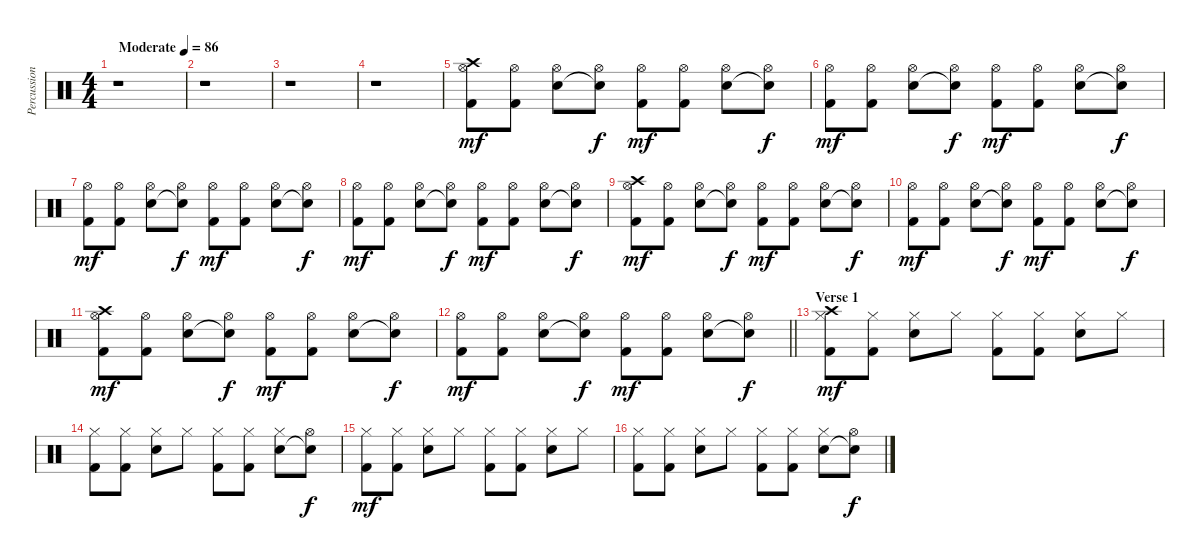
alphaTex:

\track ("Percussion" "Percussion") {instrument percussion}
\staff {score}
\articulation defaults
\ts (4 4)
\tempo (86 "Moderate")
\clef neutral
\ks c
r.1{dy mf} |
r.1 |
r.1 |
r.1 |
("Kick (hit) 2" "Hi-Hat (open)" "Crash high (hit)").8 ("Kick (hit) 2" "Hi-Hat (open)").8 ("Snare (hit) 2" "Hi-Hat (open)").8 ("Snare (hit)"{t} "Hi-Hat (open)").8{dy f} ("Kick (hit) 2" "Hi-Hat (open)").8{dy mf} ("Kick (hit) 2" "Hi-Hat (open)").8 ("Snare (hit) 2" "Hi-Hat (open)").8 ("Snare (hit)"{t} "Hi-Hat (open)").8{dy f} |
("Kick (hit) 2" "Hi-Hat (open)").8{dy mf} ("Kick (hit) 2" "Hi-Hat (open)").8 ("Snare (hit) 2" "Hi-Hat (open)").8 ("Snare (hit)"{t} "Hi-Hat (open)").8{dy f} ("Kick (hit) 2" "Hi-Hat (open)").8{dy mf} ("Kick (hit) 2" "Hi-Hat (open)").8 ("Snare (hit) 2" "Hi-Hat (open)").8 ("Snare (hit)"{t} "Hi-Hat (open)").8{dy f} |
("Kick (hit) 2" "Hi-Hat (open)").8{dy mf} ("Kick (hit) 2" "Hi-Hat (open)").8 ("Snare (hit) 2" "Hi-Hat (open)").8 ("Snare (hit)"{t} "Hi-Hat (open)").8{dy f} ("Kick (hit) 2" "Hi-Hat (open)").8{dy mf} ("Kick (hit) 2" "Hi-Hat (open)").8 ("Snare (hit) 2" "Hi-Hat (open)").8 ("Snare (hit)"{t} "Hi-Hat (open)").8{dy f} |
("Kick (hit) 2" "Hi-Hat (open)").8{dy mf} ("Kick (hit) 2" "Hi-Hat (open)").8 ("Snare (hit) 2" "Hi-Hat (open)").8 ("Snare (hit)"{t} "Hi-Hat (open)").8{dy f} ("Kick (hit) 2" "Hi-Hat (open)").8{dy mf} ("Kick (hit) 2" "Hi-Hat (open)").8 ("Snare (hit) 2" "Hi-Hat (open)").8 ("Snare (hit)"{t} "Hi-Hat (open)").8{dy f} |
("Kick (hit) 2" "Hi-Hat (open)" "Crash high (hit)").8{dy mf} ("Kick (hit) 2" "Hi-Hat (open)").8 ("Snare (hit) 2" "Hi-Hat (open)").8 ("Snare (hit)"{t} "Hi-Hat (open)").8{dy f} ("Kick (hit) 2" "Hi-Hat (open)").8{dy mf} ("Kick (hit) 2" "Hi-Hat (open)").8 ("Snare (hit) 2" "Hi-Hat (open)").8 ("Snare (hit)"{t} "Hi-Hat (open)").8{dy f} |
("Kick (hit) 2" "Hi-Hat (open)").8{dy mf} ("Kick (hit) 2" "Hi-Hat (open)").8 ("Snare (hit) 2" "Hi-Hat (open)").8 ("Snare (hit)"{t} "Hi-Hat (open)").8{dy f} ("Kick (hit) 2" "Hi-Hat (open)").8{dy mf} ("Kick (hit) 2" "Hi-Hat (open)").8 ("Snare (hit) 2" "Hi-Hat (open)").8 ("Snare (hit)"{t} "Hi-Hat (open)").8{dy f} |
("Kick (hit) 2" "Hi-Hat (open)" "Crash high (hit)").8{dy mf} ("Kick (hit) 2" "Hi-Hat (open)").8 ("Snare (hit) 2" "Hi-Hat (open)").8 ("Snare (hit)"{t} "Hi-Hat (open)").8{dy f} ("Kick (hit) 2" "Hi-Hat (open)").8{dy mf} ("Kick (hit) 2" "Hi-Hat (open)").8 ("Snare (hit) 2" "Hi-Hat (open)").8 ("Snare (hit)"{t} "Hi-Hat (open)").8{dy f} |
\barLineRight lightlight
("Kick (hit) 2" "Hi-Hat (open)").8{dy mf} ("Kick (hit) 2" "Hi-Hat (open)").8 ("Snare (hit) 2" "Hi-Hat (open)").8 ("Snare (hit)"{t} "Hi-Hat (open)").8{dy f} ("Kick (hit) 2" "Hi-Hat (open)").8{dy mf} ("Kick (hit) 2" "Hi-Hat (open)").8 ("Snare (hit) 2" "Hi-Hat (open)").8 ("Snare (hit)"{t} "Hi-Hat (open)").8{dy f} |
\section ("" "Verse 1")
("Kick (hit) 2" "Hi-Hat (closed)" "Crash high (hit)").8{dy mf} ("Kick (hit) 2" "Hi-Hat (closed)").8 ("Snare (hit) 2" "Hi-Hat (closed)").8 "Hi-Hat (closed)".8 ("Kick (hit) 2" "Hi-Hat (closed)").8 ("Kick (hit) 2" "Hi-Hat (closed)").8 ("Snare (hit) 2" "Hi-Hat (closed)").8 "Hi-Hat (closed)".8 |
("Kick (hit) 2" "Hi-Hat (closed)").8 ("Kick (hit) 2" "Hi-Hat (closed)").8 ("Snare (hit) 2" "Hi-Hat (closed)").8 "Hi-Hat (closed)".8 ("Kick (hit) 2" "Hi-Hat (closed)").8 ("Kick (hit) 2" "Hi-Hat (closed)").8 ("Snare (hit) 2" "Hi-Hat (closed)").8 ("Snare (hit)"{t} "Hi-Hat (open)").8{dy f} |
("Kick (hit) 2" "Hi-Hat (closed)").8{dy mf} ("Kick (hit) 2" "Hi-Hat (closed)").8 ("Snare (hit) 2" "Hi-Hat (closed)").8 "Hi-Hat (closed)".8 ("Kick (hit) 2" "Hi-Hat (closed)").8 ("Kick (hit) 2" "Hi-Hat (closed)").8 ("Snare (hit) 2" "Hi-Hat (closed)").8 "Hi-Hat (closed)".8 |
("Kick (hit) 2" "Hi-Hat (closed)").8 ("Kick (hit) 2" "Hi-Hat (closed)").8 ("Snare (hit) 2" "Hi-Hat (closed)").8 "Hi-Hat (closed)".8 ("Kick (hit) 2" "Hi-Hat (closed)").8 ("Kick (hit) 2" "Hi-Hat (closed)").8 ("Snare (hit) 2" "Hi-Hat (closed)").8 ("Snare (hit)"{t} "Hi-Hat (open)").8{dy f}
